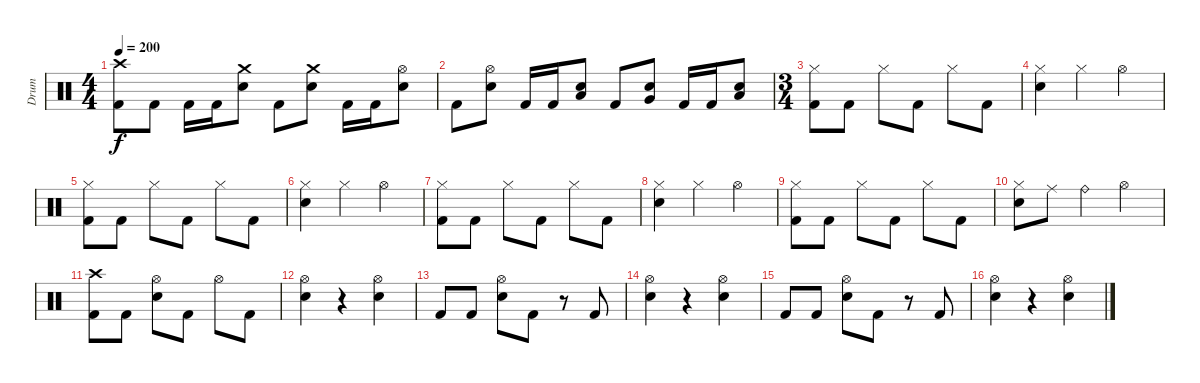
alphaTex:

\track ("Drum" "Drum") {instrument percussion}
\staff {score}
\articulation defaults
\ts (4 4)
\tempo 200
\clef neutral
\ks c
("Crash high (hit)" "Kick (hit) 2").8{dy f} "Kick (hit) 2".8 "Kick (hit) 2".16 "Kick (hit) 2".16 ("Crash medium (hit)" "Electric Snare (hit)").8 "Kick (hit) 2".8 ("Crash medium (hit)" "Electric Snare (hit)").8 "Kick (hit) 2".16 "Kick (hit) 2".16 ("Hi-Hat (open)" "Electric Snare (hit)").8 |
"Kick (hit) 2".8 ("Hi-Hat (open)" "Electric Snare (hit)").8 "Kick (hit) 2".16 "Kick (hit) 2".16 ("Low Tom (hit)" "Electric Snare (hit)").8 "Kick (hit) 2".8 ("Very Low Tom (hit)" "Electric Snare (hit)").8 "Kick (hit) 2".16 "Kick (hit) 2".16 ("Low Floor Tom (hit)" "Electric Snare (hit)").8 |
\ts (3 4)
("Hi-Hat (closed)" "Kick (hit) 2").8 "Kick (hit) 2".8 "Hi-Hat (closed)".8 "Kick (hit) 2".8 "Hi-Hat (closed)".8 "Kick (hit) 2".8 |
("Hi-Hat (closed)" "Electric Snare (hit)").4 "Hi-Hat (closed)".4 "Hi-Hat (open)".4 |
("Hi-Hat (closed)" "Kick (hit) 2").8 "Kick (hit) 2".8 "Hi-Hat (closed)".8 "Kick (hit) 2".8 "Hi-Hat (closed)".8 "Kick (hit) 2".8 |
("Hi-Hat (closed)" "Electric Snare (hit)").4 "Hi-Hat (closed)".4 "Hi-Hat (open)".4 |
("Hi-Hat (closed)" "Kick (hit) 2").8 "Kick (hit) 2".8 "Hi-Hat (closed)".8 "Kick (hit) 2".8 "Hi-Hat (closed)".8 "Kick (hit) 2".8 |
("Hi-Hat (closed)" "Electric Snare (hit)").4 "Hi-Hat (closed)".4 "Hi-Hat (open)".4 |
("Hi-Hat (closed)" "Kick (hit) 2").8 "Kick (hit) 2".8 "Hi-Hat (closed)".8 "Kick (hit) 2".8 "Hi-Hat (closed)".8 "Kick (hit) 2".8 |
("Hi-Hat (closed)" "Electric Snare (hit)").8 "Ride (middle)".8 "Ride (bell)".4 "Hi-Hat (open)".4 |
("Crash high (hit)" "Kick (hit) 2").8 "Kick (hit) 2".8 ("Hi-Hat (open)" "Electric Snare (hit)").8 "Kick (hit) 2".8 "Hi-Hat (open)".8 "Kick (hit) 2".8 |
("Hi-Hat (open)" "Electric Snare (hit)").4 r.4 ("Hi-Hat (open)" "Electric Snare (hit)").4 |
"Kick (hit) 2".8 "Kick (hit) 2".8 ("Hi-Hat (open)" "Electric Snare (hit)").8 "Kick (hit) 2".8 r.8 "Kick (hit) 2".8 |
("Hi-Hat (open)" "Electric Snare (hit)").4 r.4 ("Hi-Hat (open)" "Electric Snare (hit)").4 |
"Kick (hit) 2".8 "Kick (hit) 2".8 ("Hi-Hat (open)" "Electric Snare (hit)").8 "Kick (hit) 2".8 r.8 "Kick (hit) 2".8 |
("Hi-Hat (open)" "Electric Snare (hit)").4 r.4 ("Hi-Hat (open)" "Electric Snare (hit)").4
